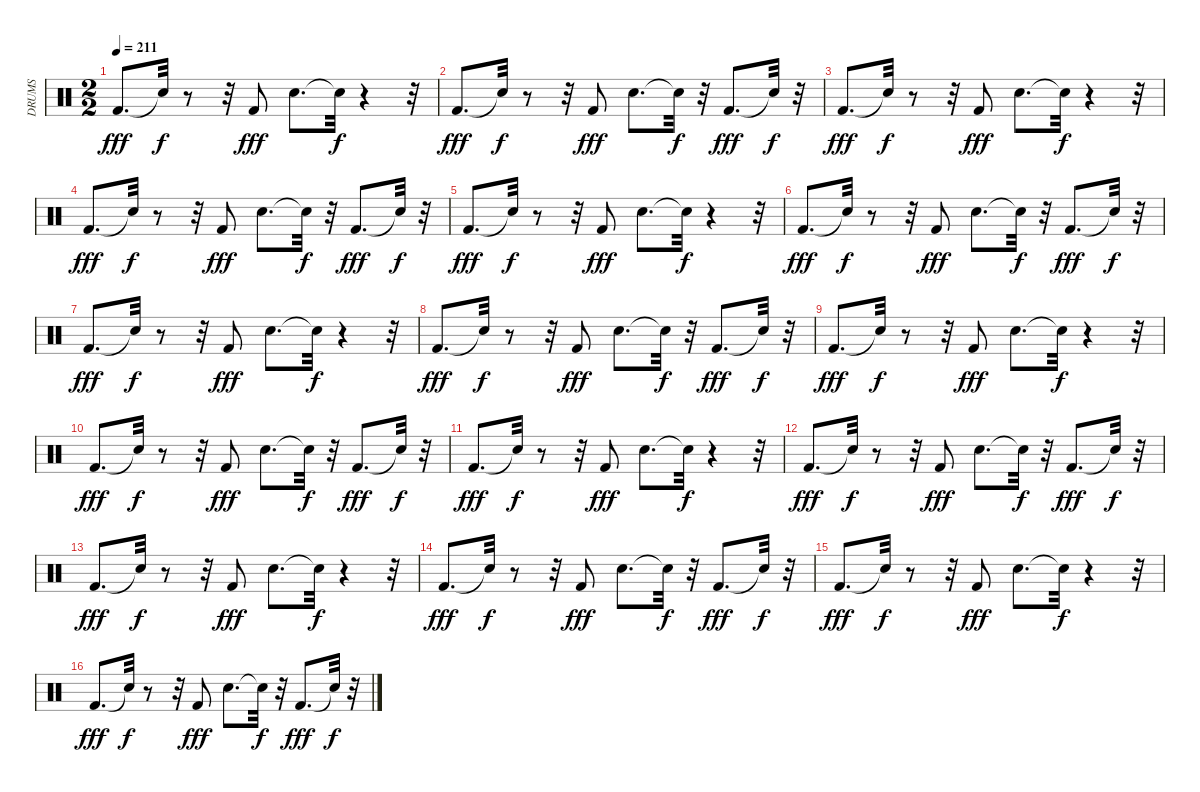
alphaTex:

\track ("DRUMS" "DRUMS") {instrument percussion}
\staff {score}
\articulation defaults
\ts (2 2)
\tempo 211
\clef neutral
\ks c "Kick (hit) 2".8{d dy fff} "Snare (hit)"{t}.32{dy f}
r.8 r.32 "Kick (hit) 2".8{dy fff} "Snare (hit) 2".8{d} "Snare (hit)"{t}.32{dy f} r.4 r.32 |
"Kick (hit) 2".8{d dy fff} "Snare (hit)"{t}.32{dy f} r.8 r.32 "Kick (hit) 2".8{dy fff} "Snare (hit) 2".8{d} "Snare (hit)"{t}.32{dy f} r.32 "Kick (hit) 2".8{d dy fff} "Snare (hit)"{t}.32{dy f} r.32 |
"Kick (hit) 2".8{d dy fff} "Snare (hit)"{t}.32{dy f} r.8 r.32 "Kick (hit) 2".8{dy fff} "Snare (hit) 2".8{d} "Snare (hit)"{t}.32{dy f} r.4 r.32 |
"Kick (hit) 2".8{d dy fff} "Snare (hit)"{t}.32{dy f} r.8 r.32 "Kick (hit) 2".8{dy fff} "Snare (hit) 2".8{d} "Snare (hit)"{t}.32{dy f} r.32 "Kick (hit) 2".8{d dy fff} "Snare (hit)"{t}.32{dy f} r.32 |
"Kick (hit) 2".8{d dy fff} "Snare (hit)"{t}.32{dy f} r.8 r.32 "Kick (hit) 2".8{dy fff} "Snare (hit) 2".8{d} "Snare (hit)"{t}.32{dy f} r.4 r.32 |
"Kick (hit) 2".8{d dy fff} "Snare (hit)"{t}.32{dy f} r.8 r.32 "Kick (hit) 2".8{dy fff} "Snare (hit) 2".8{d} "Snare (hit)"{t}.32{dy f} r.32 "Kick (hit) 2".8{d dy fff} "Snare (hit)"{t}.32{dy f} r.32 |
"Kick (hit) 2".8{d dy fff} "Snare (hit)"{t}.32{dy f} r.8 r.32 "Kick (hit) 2".8{dy fff} "Snare (hit) 2".8{d} "Snare (hit)"{t}.32{dy f} r.4 r.32 |
"Kick (hit) 2".8{d dy fff} "Snare (hit)"{t}.32{dy f} r.8 r.32 "Kick (hit) 2".8{dy fff} "Snare (hit) 2".8{d} "Snare (hit)"{t}.32{dy f} r.32 "Kick (hit) 2".8{d dy fff} "Snare (hit)"{t}.32{dy f} r.32 |
"Kick (hit) 2".8{d dy fff} "Snare (hit)"{t}.32{dy f} r.8 r.32 "Kick (hit) 2".8{dy fff} "Snare (hit) 2".8{d} "Snare (hit)"{t}.32{dy f} r.4 r.32 |
"Kick (hit) 2".8{d dy fff} "Snare (hit)"{t}.32{dy f} r.8 r.32 "Kick (hit) 2".8{dy fff} "Snare (hit) 2".8{d} "Snare (hit)"{t}.32{dy f} r.32 "Kick (hit) 2".8{d dy fff} "Snare (hit)"{t}.32{dy f} r.32 |
"Kick (hit) 2".8{d dy fff} "Snare (hit)"{t}.32{dy f} r.8 r.32 "Kick (hit) 2".8{dy fff} "Snare (hit) 2".8{d} "Snare (hit)"{t}.32{dy f} r.4 r.32 |
"Kick (hit) 2".8{d dy fff} "Snare (hit)"{t}.32{dy f} r.8 r.32 "Kick (hit) 2".8{dy fff} "Snare (hit) 2".8{d} "Snare (hit)"{t}.32{dy f} r.32 "Kick (hit) 2".8{d dy fff} "Snare (hit)"{t}.32{dy f} r.32 |
"Kick (hit) 2".8{d dy fff} "Snare (hit)"{t}.32{dy f} r.8 r.32 "Kick (hit) 2".8{dy fff} "Snare (hit) 2".8{d} "Snare (hit)"{t}.32{dy f} r.4 r.32 |
"Kick (hit) 2".8{d dy fff} "Snare (hit)"{t}.32{dy f} r.8 r.32 "Kick (hit) 2".8{dy fff} "Snare (hit) 2".8{d} "Snare (hit)"{t}.32{dy f} r.32 "Kick (hit) 2".8{d dy fff} "Snare (hit)"{t}.32{dy f} r.32 |
"Kick (hit) 2".8{d dy fff} "Snare (hit)"{t}.32{dy f} r.8 r.32 "Kick (hit) 2".8{dy fff} "Snare (hit) 2".8{d} "Snare (hit)"{t}.32{dy f} r.4 r.32 |
"Kick (hit) 2".8{d dy fff} "Snare (hit)"{t}.32{dy f} r.8 r.32 "Kick (hit) 2".8{dy fff} "Snare (hit) 2".8{d} "Snare (hit)"{t}.32{dy f} r.32 "Kick (hit) 2".8{d dy fff} "Snare (hit)"{t}.32{dy f} r.32
